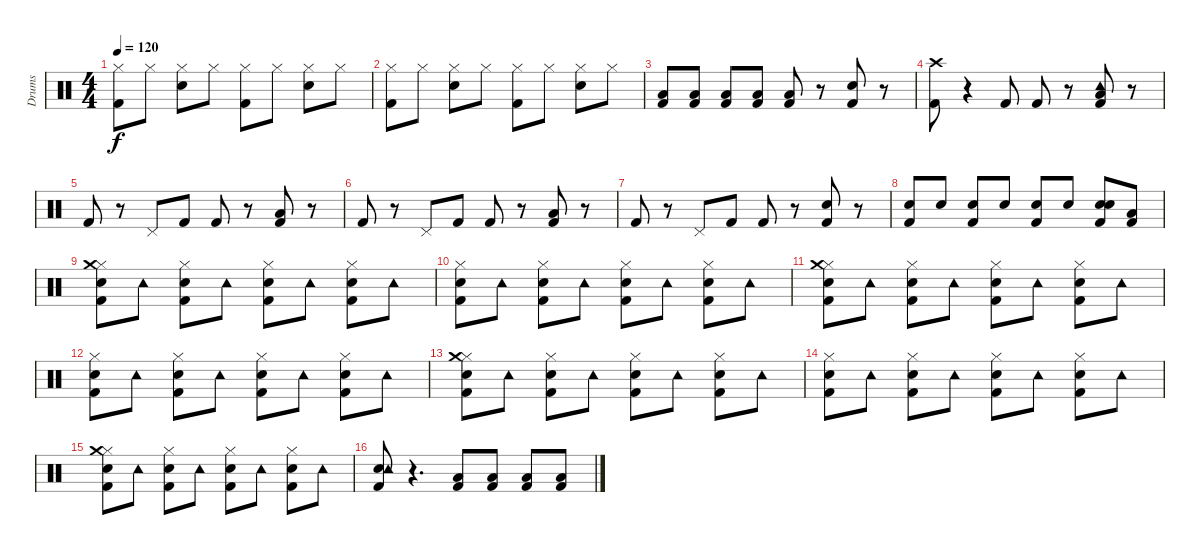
\track ("Drums" "Drums") {instrument percussion}
\staff {score}
\articulation defaults
\ts (4 4)
\tempo 120
\clef neutral
\ks c
("Hi-Hat (closed)" "Kick (hit) 2").8{dy f} "Hi-Hat (closed)".8 ("Hi-Hat (closed)" "Snare (hit) 2").8 "Hi-Hat (closed)".8 ("Hi-Hat (closed)" "Kick (hit) 2").8 "Hi-Hat (closed)".8 ("Hi-Hat (closed)" "Snare (hit) 2").8 "Hi-Hat (closed)".8 |
("Kick (hit) 2" "Hi-Hat (closed)").8 "Hi-Hat (closed)".8 ("Snare (hit) 2" "Hi-Hat (closed)").8 "Hi-Hat (closed)".8 ("Kick (hit) 2" "Hi-Hat (closed)").8 "Hi-Hat (closed)".8 ("Snare (hit) 2" "Hi-Hat (closed)").8 "Hi-Hat (closed)".8 |
("Low Tom (hit)" "Kick (hit) 2").8 ("Low Tom (hit)" "Kick (hit) 2").8 ("Low Tom (hit)" "Kick (hit) 2").8 ("Low Tom (hit)" "Kick (hit) 2").8 ("Low Tom (hit)" "Kick (hit) 2").8 r.8 ("Kick (hit) 2" "Snare (hit) 2").8 r.8 |
("Crash high (hit)" "Kick (hit) 2").8 r.4 "Kick (hit) 2".8 "Kick (hit) 2".8 r.8 ("Low Tom (hit)" "Kick (hit) 2" "Tambourine (hit)").8 r.8 |
"Kick (hit) 2".8 r.8 "Pedal Hi-Hat (hit)".8 "Kick (hit) 2".8 "Kick (hit) 2".8 r.8 ("Low Tom (hit)" "Kick (hit) 2").8 r.8 |
"Kick (hit) 2".8 r.8 "Pedal Hi-Hat (hit)".8 "Kick (hit) 2".8 "Kick (hit) 2".8 r.8 ("Kick (hit) 2" "Low Tom (hit)").8 r.8 |
"Kick (hit) 2".8 r.8 "Pedal Hi-Hat (hit)".8 "Kick (hit) 2".8 "Kick (hit) 2".8 r.8 ("Kick (hit) 2" "Snare (hit) 2").8 r.8 |
("Kick (hit) 2" "Snare (hit) 2").8 "Snare (hit) 2".8 ("Kick (hit) 2" "Snare (hit) 2").8 "Snare (hit) 2".8 ("Kick (hit) 2" "Snare (hit) 2").8 "Snare (hit) 2".8 ("Kick (hit) 2" "Snare (hit) 2" "Snare (hit) 2").8 ("Kick (hit) 2" "Low Tom (hit)").8 |
("Hi-Hat (closed)" "Snare (hit) 2" "Kick (hit) 2" "Crash medium (hit)").8 "Tambourine (hit)".8 ("Hi-Hat (closed)" "Snare (hit) 2" "Kick (hit) 2").8 "Tambourine (hit)".8 ("Hi-Hat (closed)" "Snare (hit) 2" "Kick (hit) 2").8 "Tambourine (hit)".8 ("Hi-Hat (closed)" "Snare (hit) 2" "Kick (hit) 2").8 "Tambourine (hit)".8 |
("Snare (hit) 2" "Hi-Hat (closed)" "Kick (hit) 2").8 "Tambourine (hit)".8 ("Snare (hit) 2" "Hi-Hat (closed)" "Kick (hit) 2").8 "Tambourine (hit)".8 ("Snare (hit) 2" "Hi-Hat (closed)" "Kick (hit) 2").8 "Tambourine (hit)".8 ("Hi-Hat (closed)" "Snare (hit) 2" "Kick (hit) 2").8 "Tambourine (hit)".8 |
("Hi-Hat (closed)" "Snare (hit) 2" "Kick (hit) 2" "Crash medium (hit)").8 "Tambourine (hit)".8 ("Hi-Hat (closed)" "Snare (hit) 2" "Kick (hit) 2").8 "Tambourine (hit)".8 ("Hi-Hat (closed)" "Snare (hit) 2" "Kick (hit) 2").8 "Tambourine (hit)".8 ("Hi-Hat (closed)" "Snare (hit) 2" "Kick (hit) 2").8 "Tambourine (hit)".8 |
("Snare (hit) 2" "Hi-Hat (closed)" "Kick (hit) 2").8 "Tambourine (hit)".8 ("Snare (hit) 2" "Hi-Hat (closed)" "Kick (hit) 2").8 "Tambourine (hit)".8 ("Snare (hit) 2" "Hi-Hat (closed)" "Kick (hit) 2").8 "Tambourine (hit)".8 ("Hi-Hat (closed)" "Snare (hit) 2" "Kick (hit) 2").8 "Tambourine (hit)".8 |
("Hi-Hat (closed)" "Snare (hit) 2" "Kick (hit) 2" "Crash medium (hit)").8 "Tambourine (hit)".8 ("Hi-Hat (closed)" "Snare (hit) 2" "Kick (hit) 2").8 "Tambourine (hit)".8 ("Hi-Hat (closed)" "Snare (hit) 2" "Kick (hit) 2").8 "Tambourine (hit)".8 ("Hi-Hat (closed)" "Snare (hit) 2" "Kick (hit) 2").8 "Tambourine (hit)".8 |
("Snare (hit) 2" "Hi-Hat (closed)" "Kick (hit) 2").8 "Tambourine (hit)".8 ("Snare (hit) 2" "Hi-Hat (closed)" "Kick (hit) 2").8 "Tambourine (hit)".8 ("Snare (hit) 2" "Hi-Hat (closed)" "Kick (hit) 2").8 "Tambourine (hit)".8 ("Hi-Hat (closed)" "Snare (hit) 2" "Kick (hit) 2").8 "Tambourine (hit)".8 |
("Hi-Hat (closed)" "Snare (hit) 2" "Kick (hit) 2" "Crash medium (hit)").8 "Tambourine (hit)".8 ("Hi-Hat (closed)" "Snare (hit) 2" "Kick (hit) 2").8 "Tambourine (hit)".8 ("Hi-Hat (closed)" "Snare (hit) 2" "Kick (hit) 2").8 "Tambourine (hit)".8 ("Hi-Hat (closed)" "Snare (hit) 2" "Kick (hit) 2").8 "Tambourine (hit)".8 |
("Kick (hit) 2" "Snare (hit) 2" "Tambourine (hit)").8 r.4{d} ("Low Floor Tom (hit)" "Kick (hit) 2").8 ("Low Floor Tom (hit)" "Kick (hit) 2").8 ("Low Floor Tom (hit)" "Kick (hit) 2").8 ("Low Floor Tom (hit)" "Kick (hit) 2").8
